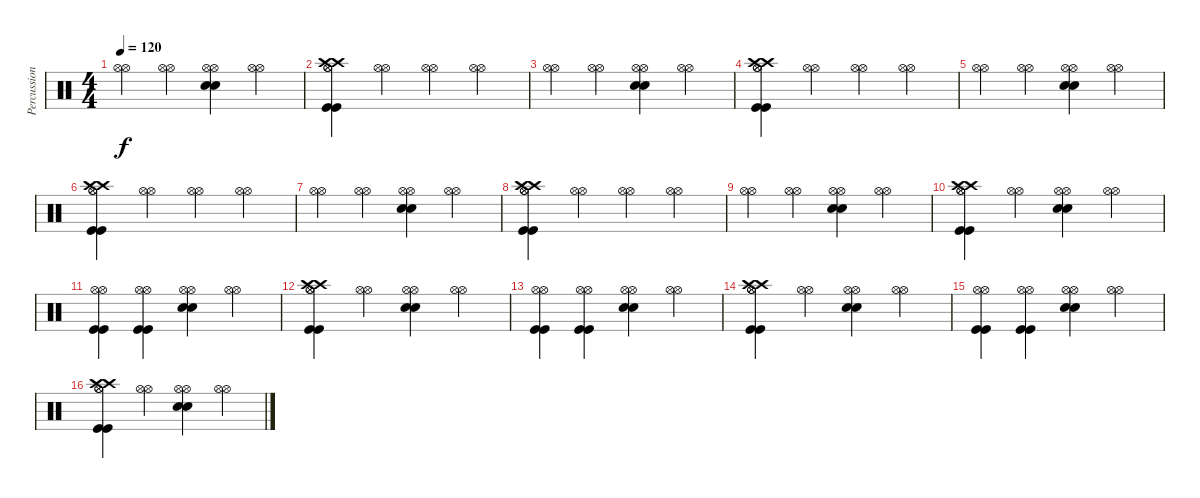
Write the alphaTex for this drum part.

\track ("Percussion" "Percussion") {instrument percussion}
\staff {score}
\articulation defaults
\ts (4 4)
\tempo 120
\clef neutral
\ks c
("Hi-Hat (open)" "Hi-Hat (open)").4{dy f} ("Hi-Hat (open)" "Hi-Hat (open)").4 ("Hi-Hat (open)" "Hi-Hat (open)" "Electric Snare (hit)" "Electric Snare (hit)").4 ("Hi-Hat (open)" "Hi-Hat (open)").4 |
("Hi-Hat (open)" "Hi-Hat (open)" "Kick (hit)" "Kick (hit)" "Crash high (hit)" "Crash high (hit)").4 ("Hi-Hat (open)" "Hi-Hat (open)").4 ("Hi-Hat (open)" "Hi-Hat (open)").4 ("Hi-Hat (open)" "Hi-Hat (open)").4 |
("Hi-Hat (open)" "Hi-Hat (open)").4 ("Hi-Hat (open)" "Hi-Hat (open)").4 ("Hi-Hat (open)" "Hi-Hat (open)" "Electric Snare (hit)" "Electric Snare (hit)").4 ("Hi-Hat (open)" "Hi-Hat (open)").4 |
("Hi-Hat (open)" "Hi-Hat (open)" "Kick (hit)" "Kick (hit)" "Crash high (hit)" "Crash high (hit)").4 ("Hi-Hat (open)" "Hi-Hat (open)").4 ("Hi-Hat (open)" "Hi-Hat (open)").4 ("Hi-Hat (open)" "Hi-Hat (open)").4 |
("Hi-Hat (open)" "Hi-Hat (open)").4 ("Hi-Hat (open)" "Hi-Hat (open)").4 ("Hi-Hat (open)" "Hi-Hat (open)" "Electric Snare (hit)" "Electric Snare (hit)").4 ("Hi-Hat (open)" "Hi-Hat (open)").4 |
("Hi-Hat (open)" "Hi-Hat (open)" "Kick (hit)" "Kick (hit)" "Crash high (hit)" "Crash high (hit)").4 ("Hi-Hat (open)" "Hi-Hat (open)").4 ("Hi-Hat (open)" "Hi-Hat (open)").4 ("Hi-Hat (open)" "Hi-Hat (open)").4 |
("Hi-Hat (open)" "Hi-Hat (open)").4 ("Hi-Hat (open)" "Hi-Hat (open)").4 ("Hi-Hat (open)" "Hi-Hat (open)" "Electric Snare (hit)" "Electric Snare (hit)").4 ("Hi-Hat (open)" "Hi-Hat (open)").4 |
("Hi-Hat (open)" "Hi-Hat (open)" "Kick (hit)" "Kick (hit)" "Crash high (hit)" "Crash high (hit)").4 ("Hi-Hat (open)" "Hi-Hat (open)").4 ("Hi-Hat (open)" "Hi-Hat (open)").4 ("Hi-Hat (open)" "Hi-Hat (open)").4 |
("Hi-Hat (open)" "Hi-Hat (open)").4 ("Hi-Hat (open)" "Hi-Hat (open)").4 ("Hi-Hat (open)" "Hi-Hat (open)" "Electric Snare (hit)" "Electric Snare (hit)").4 ("Hi-Hat (open)" "Hi-Hat (open)").4 |
("Hi-Hat (open)" "Hi-Hat (open)" "Kick (hit)" "Kick (hit)" "Crash high (hit)" "Crash high (hit)").4 ("Hi-Hat (open)" "Hi-Hat (open)").4 ("Hi-Hat (open)" "Hi-Hat (open)" "Electric Snare (hit)" "Electric Snare (hit)").4 ("Hi-Hat (open)" "Hi-Hat (open)").4 |
("Hi-Hat (open)" "Hi-Hat (open)" "Kick (hit)" "Kick (hit)").4 ("Hi-Hat (open)" "Hi-Hat (open)" "Kick (hit)" "Kick (hit)").4 ("Hi-Hat (open)" "Hi-Hat (open)" "Electric Snare (hit)" "Electric Snare (hit)").4 ("Hi-Hat (open)" "Hi-Hat (open)").4 |
("Hi-Hat (open)" "Hi-Hat (open)" "Kick (hit)" "Kick (hit)" "Crash high (hit)" "Crash high (hit)").4 ("Hi-Hat (open)" "Hi-Hat (open)").4 ("Hi-Hat (open)" "Hi-Hat (open)" "Electric Snare (hit)" "Electric Snare (hit)").4 ("Hi-Hat (open)" "Hi-Hat (open)").4 |
("Hi-Hat (open)" "Hi-Hat (open)" "Kick (hit)" "Kick (hit)").4 ("Hi-Hat (open)" "Hi-Hat (open)" "Kick (hit)" "Kick (hit)").4 ("Hi-Hat (open)" "Hi-Hat (open)" "Electric Snare (hit)" "Electric Snare (hit)").4 ("Hi-Hat (open)" "Hi-Hat (open)").4 |
("Hi-Hat (open)" "Hi-Hat (open)" "Kick (hit)" "Kick (hit)" "Crash high (hit)" "Crash high (hit)").4 ("Hi-Hat (open)" "Hi-Hat (open)").4 ("Hi-Hat (open)" "Hi-Hat (open)" "Electric Snare (hit)" "Electric Snare (hit)").4 ("Hi-Hat (open)" "Hi-Hat (open)").4 |
("Hi-Hat (open)" "Hi-Hat (open)" "Kick (hit)" "Kick (hit)").4 ("Hi-Hat (open)" "Hi-Hat (open)" "Kick (hit)" "Kick (hit)").4 ("Hi-Hat (open)" "Hi-Hat (open)" "Electric Snare (hit)" "Electric Snare (hit)").4 ("Hi-Hat (open)" "Hi-Hat (open)").4 |
("Hi-Hat (open)" "Hi-Hat (open)" "Kick (hit)" "Kick (hit)" "Crash high (hit)" "Crash high (hit)").4 ("Hi-Hat (open)" "Hi-Hat (open)").4 ("Hi-Hat (open)" "Hi-Hat (open)" "Electric Snare (hit)" "Electric Snare (hit)").4 ("Hi-Hat (open)" "Hi-Hat (open)").4
